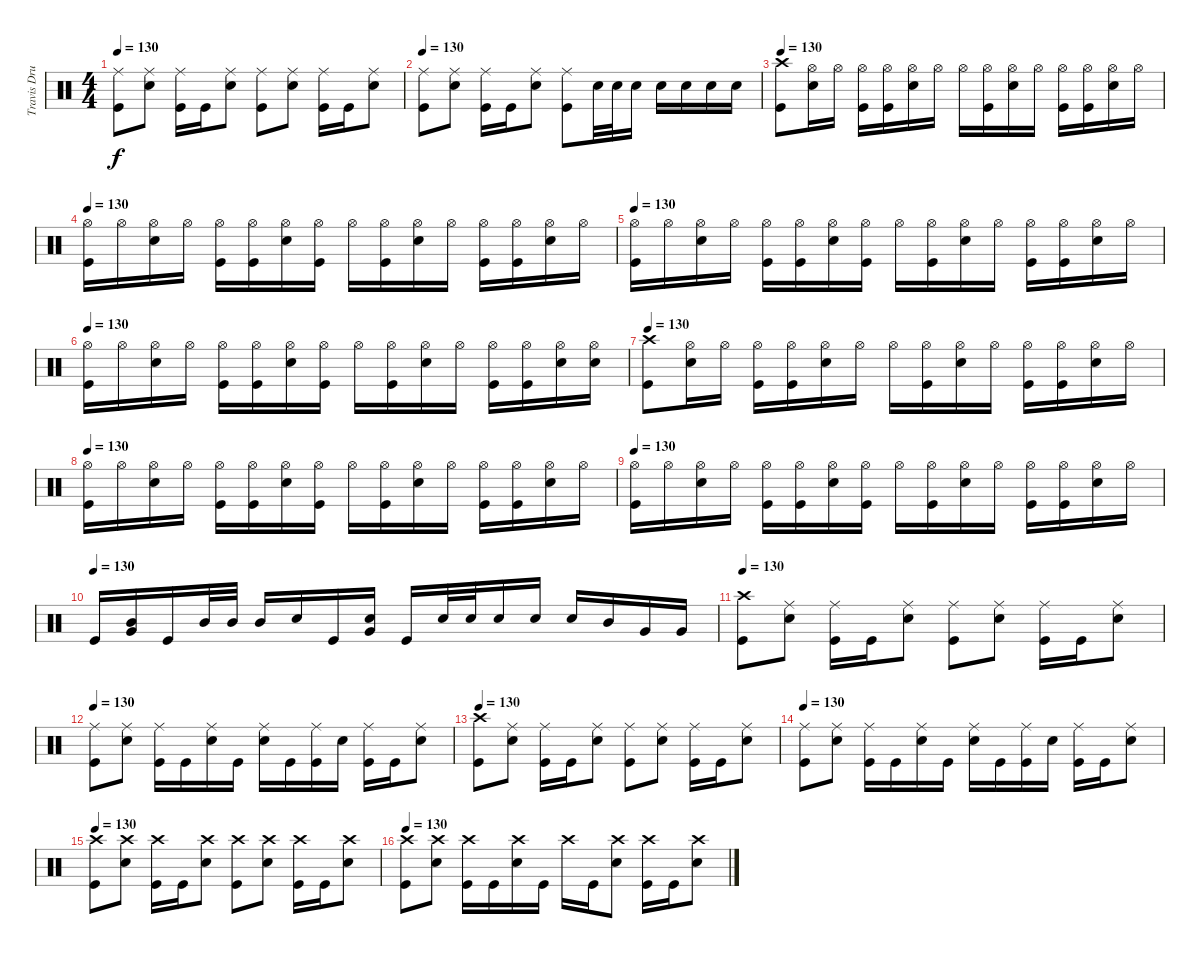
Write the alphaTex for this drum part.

\track ("Travis Drums" "Travis Dru") {instrument percussion}
\staff {score}
\articulation defaults
\ts (4 4)
\tempo 130
\clef neutral
\ks c
("Ride (middle)" "Kick (hit)").8{dy f} ("Ride (middle)" "Snare (hit) 2").8 ("Ride (middle)" "Kick (hit)").16 "Kick (hit)".16 ("Ride (middle)" "Snare (hit) 2").8 ("Ride (middle)" "Kick (hit)").8 ("Ride (middle)" "Snare (hit) 2").8 ("Ride (middle)" "Kick (hit)").16 "Kick (hit)".16 ("Ride (middle)" "Snare (hit) 2").8 |
\tempo 130
("Ride (middle)" "Kick (hit)").8 ("Ride (middle)" "Snare (hit) 2").8 ("Ride (middle)" "Kick (hit)").16 "Kick (hit)".16 ("Ride (middle)" "Snare (hit) 2").8 ("Ride (middle)" "Kick (hit)").8 "Snare (hit) 2".32 "Snare (hit) 2".32 "Snare (hit) 2".16 "Snare (hit) 2".16 "Snare (hit) 2".16 "Snare (hit) 2".16 "Snare (hit) 2".16 |
\tempo 130
("Crash high (hit)" "Kick (hit)").8 ("Hi-Hat (open)" "Snare (hit) 2").16 "Hi-Hat (open)".16 ("Hi-Hat (open)" "Kick (hit)").16 ("Hi-Hat (open)" "Kick (hit)").16 ("Hi-Hat (open)" "Snare (hit) 2").16 "Hi-Hat (open)".16 "Hi-Hat (open)".16 ("Hi-Hat (open)" "Kick (hit)").16 ("Hi-Hat (open)" "Snare (hit) 2").16 "Hi-Hat (open)".16 ("Hi-Hat (open)" "Kick (hit)").16 ("Hi-Hat (open)" "Kick (hit)").16 ("Hi-Hat (open)" "Snare (hit) 2").16 "Hi-Hat (open)".16 |
\tempo 130
("Hi-Hat (open)" "Kick (hit)").16 "Hi-Hat (open)".16 ("Hi-Hat (open)" "Snare (hit) 2").16 "Hi-Hat (open)".16 ("Hi-Hat (open)" "Kick (hit)").16 ("Hi-Hat (open)" "Kick (hit)").16 ("Hi-Hat (open)" "Snare (hit) 2").16 ("Hi-Hat (open)" "Kick (hit)").16 "Hi-Hat (open)".16 ("Hi-Hat (open)" "Kick (hit)").16 ("Hi-Hat (open)" "Snare (hit) 2").16 "Hi-Hat (open)".16 ("Hi-Hat (open)" "Kick (hit)").16 ("Hi-Hat (open)" "Kick (hit)").16 ("Hi-Hat (open)" "Snare (hit) 2").16 "Hi-Hat (open)".16 |
\tempo 130
("Hi-Hat (open)" "Kick (hit)").16 "Hi-Hat (open)".16 ("Hi-Hat (open)" "Snare (hit) 2").16 "Hi-Hat (open)".16 ("Hi-Hat (open)" "Kick (hit)").16 ("Hi-Hat (open)" "Kick (hit)").16 ("Hi-Hat (open)" "Snare (hit) 2").16 ("Hi-Hat (open)" "Kick (hit)").16 "Hi-Hat (open)".16 ("Hi-Hat (open)" "Kick (hit)").16 ("Hi-Hat (open)" "Snare (hit) 2").16 "Hi-Hat (open)".16 ("Hi-Hat (open)" "Kick (hit)").16 ("Hi-Hat (open)" "Kick (hit)").16 ("Hi-Hat (open)" "Snare (hit) 2").16 "Hi-Hat (open)".16 |
\tempo 130
("Hi-Hat (open)" "Kick (hit)").16 "Hi-Hat (open)".16 ("Hi-Hat (open)" "Snare (hit) 2").16 "Hi-Hat (open)".16 ("Hi-Hat (open)" "Kick (hit)").16 ("Hi-Hat (open)" "Kick (hit)").16 ("Hi-Hat (open)" "Snare (hit) 2").16 ("Hi-Hat (open)" "Kick (hit)").16 "Hi-Hat (open)".16 ("Hi-Hat (open)" "Kick (hit)").16 ("Hi-Hat (open)" "Snare (hit) 2").16 "Hi-Hat (open)".16 ("Hi-Hat (open)" "Kick (hit)").16 ("Hi-Hat (open)" "Kick (hit)").16 ("Hi-Hat (open)" "Snare (hit) 2").16 ("Hi-Hat (open)" "Snare (hit) 2").16 |
\tempo 130
("Crash high (hit)" "Kick (hit)").8 ("Hi-Hat (open)" "Snare (hit) 2").16 "Hi-Hat (open)".16 ("Hi-Hat (open)" "Kick (hit)").16 ("Hi-Hat (open)" "Kick (hit)").16 ("Hi-Hat (open)" "Snare (hit) 2").16 "Hi-Hat (open)".16 "Hi-Hat (open)".16 ("Hi-Hat (open)" "Kick (hit)").16 ("Hi-Hat (open)" "Snare (hit) 2").16 "Hi-Hat (open)".16 ("Hi-Hat (open)" "Kick (hit)").16 ("Hi-Hat (open)" "Kick (hit)").16 ("Hi-Hat (open)" "Snare (hit) 2").16 "Hi-Hat (open)".16 |
\tempo 130
("Hi-Hat (open)" "Kick (hit)").16 "Hi-Hat (open)".16 ("Hi-Hat (open)" "Snare (hit) 2").16 "Hi-Hat (open)".16 ("Hi-Hat (open)" "Kick (hit)").16 ("Hi-Hat (open)" "Kick (hit)").16 ("Hi-Hat (open)" "Snare (hit) 2").16 ("Hi-Hat (open)" "Kick (hit)").16 "Hi-Hat (open)".16 ("Hi-Hat (open)" "Kick (hit)").16 ("Hi-Hat (open)" "Snare (hit) 2").16 "Hi-Hat (open)".16 ("Hi-Hat (open)" "Kick (hit)").16 ("Hi-Hat (open)" "Kick (hit)").16 ("Hi-Hat (open)" "Snare (hit) 2").16 "Hi-Hat (open)".16 |
\tempo 130
("Hi-Hat (open)" "Kick (hit)").16 "Hi-Hat (open)".16 ("Hi-Hat (open)" "Snare (hit) 2").16 "Hi-Hat (open)".16 ("Hi-Hat (open)" "Kick (hit)").16 ("Hi-Hat (open)" "Kick (hit)").16 ("Hi-Hat (open)" "Snare (hit) 2").16 ("Hi-Hat (open)" "Kick (hit)").16 "Hi-Hat (open)".16 ("Hi-Hat (open)" "Kick (hit)").16 ("Hi-Hat (open)" "Snare (hit) 2").16 "Hi-Hat (open)".16 ("Hi-Hat (open)" "Kick (hit)").16 ("Hi-Hat (open)" "Kick (hit)").16 ("Hi-Hat (open)" "Snare (hit) 2").16 "Hi-Hat (open)".16 |
\tempo (130)
"Kick (hit)".16 ("Mid Tom (hit)" "Very Low Tom (hit)").16 "Kick (hit)".16 "Mid Tom (hit)".32 "Mid Tom (hit)".32 "Mid Tom (hit)".16 "Snare (hit) 2".16 "Kick (hit)".16 ("Snare (hit) 2" "Very Low Tom (hit)").16 "Kick (hit)".16 "Snare (hit) 2".32 "Snare (hit) 2".32 "Snare (hit) 2".16 "Snare (hit) 2".16 "Snare (hit) 2".16 "Mid Tom (hit)".16 "Very Low Tom (hit)".16 "Very Low Tom (hit)".16 |
\tempo 130
("Crash high (hit)" "Kick (hit)").8 ("Ride (middle)" "Snare (hit) 2").8 ("Ride (middle)" "Kick (hit)").16 "Kick (hit)".16 ("Ride (middle)" "Snare (hit) 2").8 ("Ride (middle)" "Kick (hit)").8 ("Ride (middle)" "Snare (hit) 2").8 ("Ride (middle)" "Kick (hit)").16 "Kick (hit)".16 ("Ride (middle)" "Snare (hit) 2").8 |
\tempo 130
("Ride (middle)" "Kick (hit)").8 ("Ride (middle)" "Snare (hit) 2").8 ("Ride (middle)" "Kick (hit)").16 "Kick (hit)".16 ("Ride (middle)" "Snare (hit) 2").16 "Kick (hit)".16 ("Ride (middle)" "Snare (hit) 2").16 "Kick (hit)".16 ("Ride (middle)" "Kick (hit)").16 "Snare (hit) 2".16 ("Ride (middle)" "Kick (hit)").16 "Kick (hit)".16 ("Ride (middle)" "Snare (hit) 2").8 |
\tempo 130
("Crash high (hit)" "Kick (hit)").8 ("Ride (middle)" "Snare (hit) 2").8 ("Ride (middle)" "Kick (hit)").16 "Kick (hit)".16 ("Ride (middle)" "Snare (hit) 2").8 ("Ride (middle)" "Kick (hit)").8 ("Ride (middle)" "Snare (hit) 2").8 ("Ride (middle)" "Kick (hit)").16 "Kick (hit)".16 ("Ride (middle)" "Snare (hit) 2").8 |
\tempo 130
("Ride (middle)" "Kick (hit)").8 ("Ride (middle)" "Snare (hit) 2").8 ("Ride (middle)" "Kick (hit)").16 "Kick (hit)".16 ("Ride (middle)" "Snare (hit) 2").16 "Kick (hit)".16 ("Ride (middle)" "Snare (hit) 2").16 "Kick (hit)".16 ("Ride (middle)" "Kick (hit)").16 "Snare (hit) 2".16 ("Ride (middle)" "Kick (hit)").16 "Kick (hit)".16 ("Ride (middle)" "Snare (hit) 2").8 |
\tempo 130
("Crash high (hit)" "Kick (hit)").8 ("Crash high (hit)" "Snare (hit) 2").8 ("Crash high (hit)" "Kick (hit)").16 "Kick (hit)".16 ("Crash high (hit)" "Snare (hit) 2").8 ("Crash high (hit)" "Kick (hit)").8 ("Crash high (hit)" "Snare (hit) 2").8 ("Crash high (hit)" "Kick (hit)").16 "Kick (hit)".16 ("Crash high (hit)" "Snare (hit) 2").8 |
\tempo 130
("Crash high (hit)" "Kick (hit)").8 ("Crash high (hit)" "Snare (hit) 2").8 ("Crash high (hit)" "Kick (hit)").16 "Kick (hit)".16 ("Crash high (hit)" "Snare (hit) 2").16 "Kick (hit)".16 "Crash high (hit)".16 "Kick (hit)".16 ("Crash high (hit)" "Snare (hit) 2").8 ("Crash high (hit)" "Kick (hit)").16 "Kick (hit)".16 ("Crash high (hit)" "Snare (hit) 2").8
